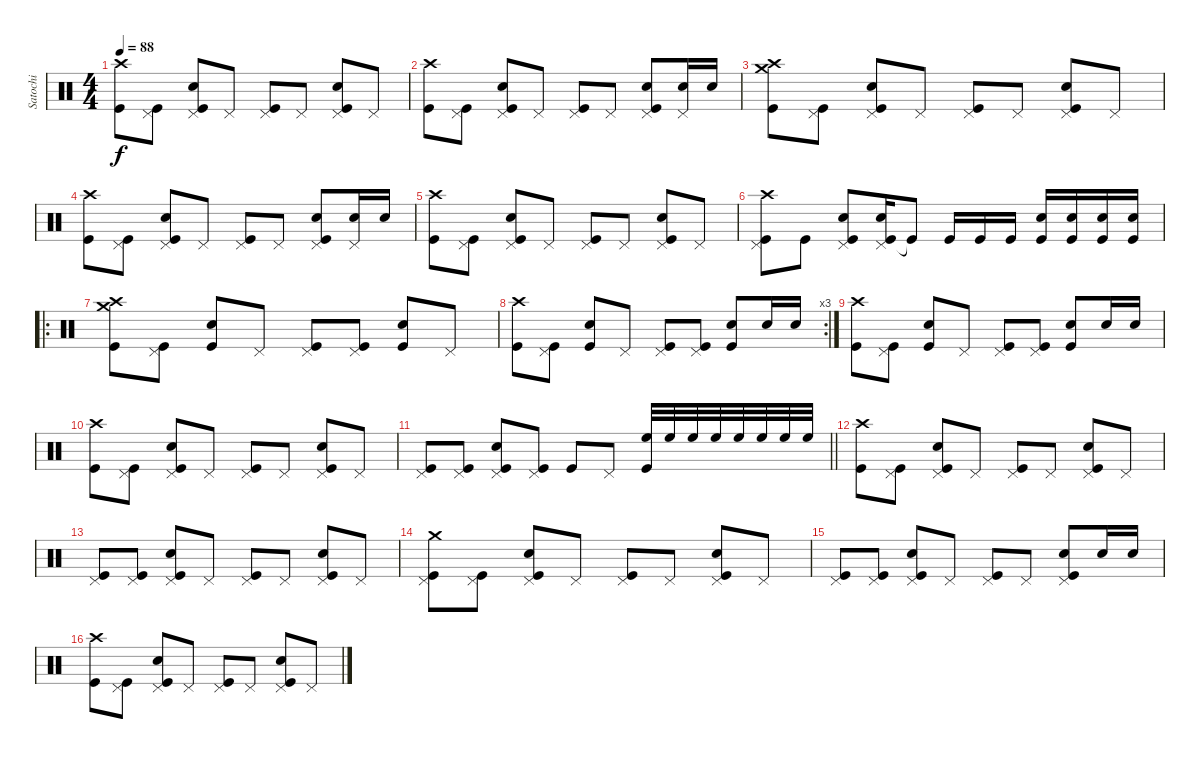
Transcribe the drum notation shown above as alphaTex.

\track ("Satochi" "Satochi") {instrument percussion}
\staff {score}
\articulation defaults
\ts (4 4)
\tempo 88
\clef neutral
\ks c
("Crash high (hit)" "Kick (hit)").8{dy f} ("Pedal Hi-Hat (hit)" "Kick (hit)").8 ("Pedal Hi-Hat (hit)" "Snare (hit) 2" "Kick (hit)").8 "Pedal Hi-Hat (hit)".8 ("Pedal Hi-Hat (hit)" "Kick (hit)").8 "Pedal Hi-Hat (hit)".8 ("Pedal Hi-Hat (hit)" "Snare (hit) 2" "Kick (hit)").8 "Pedal Hi-Hat (hit)".8 |
("Crash high (hit)" "Kick (hit)").8 ("Pedal Hi-Hat (hit)" "Kick (hit)").8 ("Pedal Hi-Hat (hit)" "Snare (hit) 2" "Kick (hit)").8 "Pedal Hi-Hat (hit)".8 ("Pedal Hi-Hat (hit)" "Kick (hit)").8 "Pedal Hi-Hat (hit)".8 ("Pedal Hi-Hat (hit)" "Snare (hit) 2" "Kick (hit)").8 ("Pedal Hi-Hat (hit)" "Snare (hit) 2").16 "Snare (hit) 2".16 |
("Crash medium (hit)" "Crash high (hit)" "Kick (hit)").8 ("Pedal Hi-Hat (hit)" "Kick (hit)").8 ("Pedal Hi-Hat (hit)" "Snare (hit) 2" "Kick (hit)").8 "Pedal Hi-Hat (hit)".8 ("Pedal Hi-Hat (hit)" "Kick (hit)").8 "Pedal Hi-Hat (hit)".8 ("Pedal Hi-Hat (hit)" "Snare (hit) 2" "Kick (hit)").8 "Pedal Hi-Hat (hit)".8 |
("Crash high (hit)" "Kick (hit)").8 ("Pedal Hi-Hat (hit)" "Kick (hit)").8 ("Pedal Hi-Hat (hit)" "Snare (hit) 2" "Kick (hit)").8 "Pedal Hi-Hat (hit)".8 ("Pedal Hi-Hat (hit)" "Kick (hit)").8 "Pedal Hi-Hat (hit)".8 ("Pedal Hi-Hat (hit)" "Snare (hit) 2" "Kick (hit)").8 ("Pedal Hi-Hat (hit)" "Snare (hit) 2").16 "Snare (hit) 2".16 |
("Crash high (hit)" "Kick (hit)").8 ("Pedal Hi-Hat (hit)" "Kick (hit)").8 ("Pedal Hi-Hat (hit)" "Snare (hit) 2" "Kick (hit)").8 "Pedal Hi-Hat (hit)".8 ("Pedal Hi-Hat (hit)" "Kick (hit)").8 "Pedal Hi-Hat (hit)".8 ("Pedal Hi-Hat (hit)" "Snare (hit) 2" "Kick (hit)").8 "Pedal Hi-Hat (hit)".8 |
("Crash high (hit)" "Pedal Hi-Hat (hit)" "Kick (hit)").8 "Kick (hit)".8 ("Pedal Hi-Hat (hit)" "Snare (hit) 2" "Kick (hit)").8 ("Pedal Hi-Hat (hit)" "Snare (hit) 2" "Kick (hit)").16 "Kick (hit)"{t}.8 "Kick (hit)".16 "Kick (hit)".16 "Kick (hit)".16 ("Snare (hit) 2" "Kick (hit)").16 ("Snare (hit) 2" "Kick (hit)").16 ("Snare (hit) 2" "Kick (hit)").16 ("Snare (hit) 2" "Kick (hit)").16 |
\ro
("Crash medium (hit)" "Crash high (hit)" "Kick (hit)").8 ("Pedal Hi-Hat (hit)" "Kick (hit)").8 ("Snare (hit) 2" "Kick (hit)").8 "Pedal Hi-Hat (hit)".8 ("Pedal Hi-Hat (hit)" "Kick (hit)").8 ("Pedal Hi-Hat (hit)" "Kick (hit)").8 ("Snare (hit) 2" "Kick (hit)").8 "Pedal Hi-Hat (hit)".8 |
\rc 3
("Crash high (hit)" "Kick (hit)").8 ("Pedal Hi-Hat (hit)" "Kick (hit)").8 ("Snare (hit) 2" "Kick (hit)").8 "Pedal Hi-Hat (hit)".8 ("Pedal Hi-Hat (hit)" "Kick (hit)").8 ("Pedal Hi-Hat (hit)" "Kick (hit)").8 ("Snare (hit) 2" "Kick (hit)").8 "Snare (hit) 2".16 "Snare (hit) 2".16 |
("Crash high (hit)" "Kick (hit)").8 ("Pedal Hi-Hat (hit)" "Kick (hit)").8 ("Snare (hit) 2" "Kick (hit)").8 "Pedal Hi-Hat (hit)".8 ("Pedal Hi-Hat (hit)" "Kick (hit)").8 ("Pedal Hi-Hat (hit)" "Kick (hit)").8 ("Snare (hit) 2" "Kick (hit)").8 "Snare (hit) 2".16 "Snare (hit) 2".16 |
("Crash high (hit)" "Kick (hit)").8 ("Pedal Hi-Hat (hit)" "Kick (hit)").8 ("Pedal Hi-Hat (hit)" "Snare (hit) 2" "Kick (hit)").8 "Pedal Hi-Hat (hit)".8 ("Pedal Hi-Hat (hit)" "Kick (hit)").8 "Pedal Hi-Hat (hit)".8 ("Pedal Hi-Hat (hit)" "Snare (hit) 2" "Kick (hit)").8 "Pedal Hi-Hat (hit)".8 |
\barLineRight lightlight
("Pedal Hi-Hat (hit)" "Kick (hit)").8 ("Pedal Hi-Hat (hit)" "Kick (hit)").8 ("Pedal Hi-Hat (hit)" "Snare (hit) 2" "Kick (hit)").8 ("Pedal Hi-Hat (hit)" "Kick (hit)").8 "Kick (hit)".8 "Pedal Hi-Hat (hit)".8 ("High Floor Tom (hit)" "Kick (hit)").32 "High Floor Tom (hit)".32 "High Floor Tom (hit)".32 "High Floor Tom (hit)".32 "High Floor Tom (hit)".32 "High Floor Tom (hit)".32 "High Floor Tom (hit)".32 "High Floor Tom (hit)".32 |
("Crash high (hit)" "Kick (hit)").8 ("Pedal Hi-Hat (hit)" "Kick (hit)").8 ("Pedal Hi-Hat (hit)" "Snare (hit) 2" "Kick (hit)").8 "Pedal Hi-Hat (hit)".8 ("Pedal Hi-Hat (hit)" "Kick (hit)").8 "Pedal Hi-Hat (hit)".8 ("Pedal Hi-Hat (hit)" "Snare (hit) 2" "Kick (hit)").8 "Pedal Hi-Hat (hit)".8 |
("Pedal Hi-Hat (hit)" "Kick (hit)").8 ("Pedal Hi-Hat (hit)" "Kick (hit)").8 ("Pedal Hi-Hat (hit)" "Snare (hit) 2" "Kick (hit)").8 "Pedal Hi-Hat (hit)".8 ("Pedal Hi-Hat (hit)" "Kick (hit)").8 "Pedal Hi-Hat (hit)".8 ("Pedal Hi-Hat (hit)" "Snare (hit) 2" "Kick (hit)").8 "Pedal Hi-Hat (hit)".8 |
("Crash medium (hit)" "Pedal Hi-Hat (hit)" "Kick (hit)").8 ("Pedal Hi-Hat (hit)" "Kick (hit)").8 ("Pedal Hi-Hat (hit)" "Snare (hit) 2" "Kick (hit)").8 "Pedal Hi-Hat (hit)".8 ("Pedal Hi-Hat (hit)" "Kick (hit)").8 "Pedal Hi-Hat (hit)".8 ("Pedal Hi-Hat (hit)" "Snare (hit) 2" "Kick (hit)").8 "Pedal Hi-Hat (hit)".8 |
("Pedal Hi-Hat (hit)" "Kick (hit)").8 ("Pedal Hi-Hat (hit)" "Kick (hit)").8 ("Pedal Hi-Hat (hit)" "Snare (hit) 2" "Kick (hit)").8 "Pedal Hi-Hat (hit)".8 ("Pedal Hi-Hat (hit)" "Kick (hit)").8 "Pedal Hi-Hat (hit)".8 ("Pedal Hi-Hat (hit)" "Snare (hit) 2" "Kick (hit)").8 "Snare (hit) 2".16 "Snare (hit) 2".16 |
("Crash high (hit)" "Kick (hit)").8 ("Pedal Hi-Hat (hit)" "Kick (hit)").8 ("Pedal Hi-Hat (hit)" "Snare (hit) 2" "Kick (hit)").8 "Pedal Hi-Hat (hit)".8 ("Pedal Hi-Hat (hit)" "Kick (hit)").8 "Pedal Hi-Hat (hit)".8 ("Pedal Hi-Hat (hit)" "Snare (hit) 2" "Kick (hit)").8 "Pedal Hi-Hat (hit)".8
